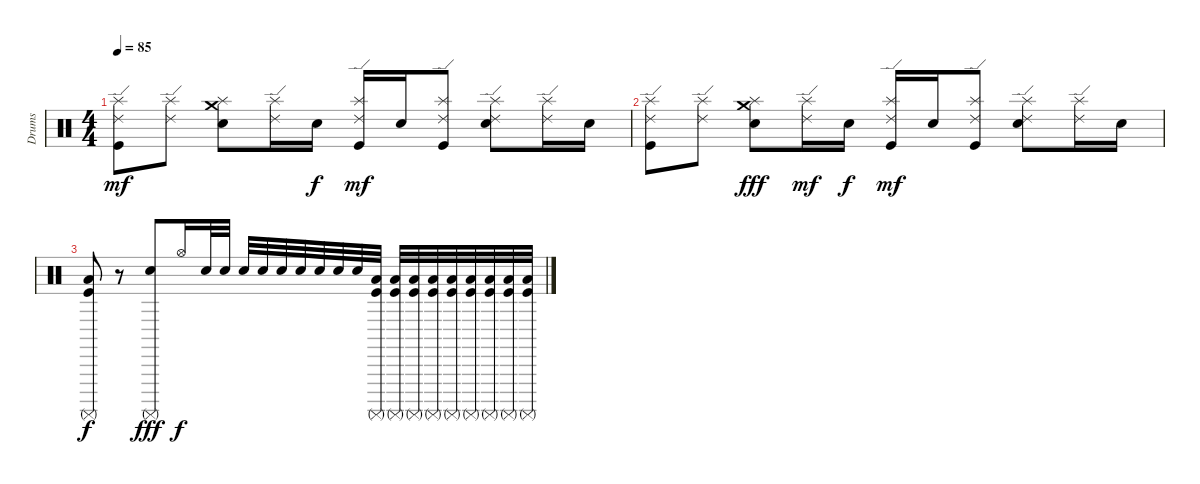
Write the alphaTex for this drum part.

\track ("Drums" "Drums") {instrument percussion}
\staff {score}
\articulation defaults
\ts (4 4)
\tempo 85
\clef neutral
\ks c
("Ride (edge) 2" "Splash (hit)" "Kick (hit)").8{dy mf} ("Ride (edge) 2" "Splash (hit)").8 ("Crash medium (hit)" "Splash (hit)" "Snare (hit) 2").8 ("Ride (edge) 2" "Splash (hit)").16 "Snare (hit) 2".16{dy f} ("Ride (edge) 2" "Splash (hit)" "Kick (hit)").16{dy mf} "Snare (hit) 2".16 ("Ride (edge) 2" "Splash (hit)" "Kick (hit)").8 ("Ride (edge) 2" "Splash (hit)" "Snare (hit) 2").8 ("Ride (edge) 2" "Splash (hit)").16 "Snare (hit) 2".16 |
("Ride (edge) 2" "Splash (hit)" "Kick (hit)").8 ("Ride (edge) 2" "Splash (hit)").8 ("Crash medium (hit)" "Splash (hit)" "Snare (hit) 2").8{dy fff} ("Ride (edge) 2" "Splash (hit)").16{dy mf} "Snare (hit) 2".16{dy f} ("Ride (edge) 2" "Splash (hit)" "Kick (hit)").16{dy mf} "Snare (hit) 2".16 ("Ride (edge) 2" "Splash (hit)" "Kick (hit)").8 ("Ride (edge) 2" "Splash (hit)" "Snare (hit) 2").8 ("Ride (edge) 2" "Splash (hit)").16 "Snare (hit) 2".16 |
("Surdo (mute)" "Low Floor Tom (hit)" "Kick (hit)").8{dy f} r.8 ("Surdo (mute)" "Snare (hit) 2").8{dy fff} "Hi-Hat (open)".16{dy f} "Snare (hit) 2".32 "Snare (hit) 2".32 "Snare (hit) 2".32 "Snare (hit) 2".32 "Snare (hit) 2".32 "Snare (hit) 2".32 "Snare (hit) 2".32 "Snare (hit) 2".32 "Snare (hit) 2".32 ("Surdo (mute)" "Low Floor Tom (hit)" "Kick (hit)").32 ("Surdo (mute)" "Low Floor Tom (hit)" "Kick (hit)").32 ("Surdo (mute)" "Low Floor Tom (hit)" "Kick (hit)").32 ("Surdo (mute)" "Low Floor Tom (hit)" "Kick (hit)").32 ("Surdo (mute)" "Low Floor Tom (hit)" "Kick (hit)").32 ("Surdo (mute)" "Low Floor Tom (hit)" "Kick (hit)").32 ("Surdo (mute)" "Low Floor Tom (hit)" "Kick (hit)").32 ("Surdo (mute)" "Low Floor Tom (hit)" "Kick (hit)").32 ("Surdo (mute)" "Low Floor Tom (hit)" "Kick (hit)").32
